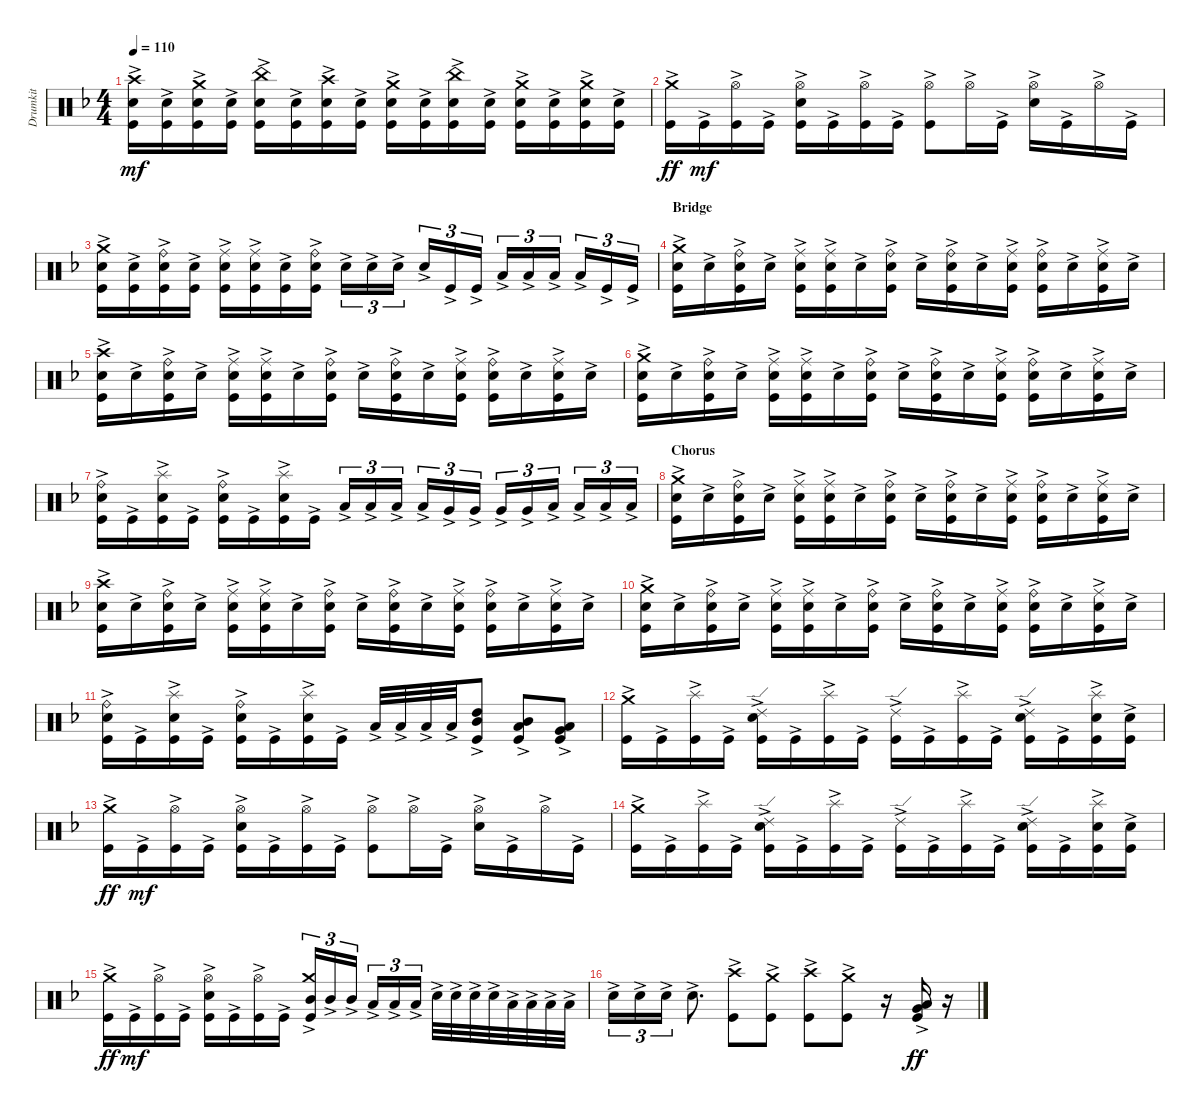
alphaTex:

\track ("Drumkit" "Drumkit") {instrument percussion}
\staff {score}
\articulation defaults
\ts (4 4)
\tempo 110
\clef neutral
\ks dminor
("Crash high (hit)"{ac} "Snare (hit) 2"{ac} "Kick (hit)"{ac}).16{dy mf} ("Snare (hit) 2"{ac} "Kick (hit)"{ac}).16 ("Crash medium (hit)"{ac} "Snare (hit) 2"{ac} "Kick (hit)"{ac}).16 ("Snare (hit) 2"{ac} "Kick (hit)"{ac}).16 ("China (hit)"{ac} "Snare (hit) 2"{ac} "Kick (hit)"{ac}).16 ("Snare (hit) 2"{ac} "Kick (hit)"{ac}).16 ("Crash high (hit)"{ac} "Snare (hit) 2"{ac} "Kick (hit)"{ac}).16 ("Snare (hit) 2"{ac} "Kick (hit)"{ac}).16 ("Crash medium (hit)"{ac} "Snare (hit) 2"{ac} "Kick (hit)"{ac}).16 ("Snare (hit) 2"{ac} "Kick (hit)"{ac}).16 ("China (hit)"{ac} "Snare (hit) 2"{ac} "Kick (hit)"{ac}).16 ("Snare (hit) 2"{ac} "Kick (hit)"{ac}).16 ("Crash medium (hit)"{ac} "Snare (hit) 2"{ac} "Kick (hit)"{ac}).16 ("Snare (hit) 2"{ac} "Kick (hit)"{ac}).16 ("Crash medium (hit)"{ac} "Snare (hit) 2"{ac} "Kick (hit)"{ac}).16 ("Snare (hit) 2"{ac} "Kick (hit)"{ac}).16 |
("Crash medium (hit)"{ac} "Kick (hit)"{ac}).16{dy ff} "Kick (hit)"{ac}.16{dy mf} ("Hi-Hat (open)"{ac} "Kick (hit)"{ac}).16 "Kick (hit)"{ac}.16 ("Hi-Hat (open)"{ac} "Snare (hit) 2"{ac} "Kick (hit)"{ac}).16 "Kick (hit)"{ac}.16 ("Hi-Hat (open)"{ac} "Kick (hit)"{ac}).16 "Kick (hit)"{ac}.16 ("Hi-Hat (open)"{ac} "Kick (hit)"{ac}).8 "Hi-Hat (open)"{ac}.16 "Kick (hit)"{ac}.16 ("Hi-Hat (open)"{ac} "Snare (hit) 2"{ac}).16 "Kick (hit)"{ac}.16 "Hi-Hat (open)"{ac}.16 "Kick (hit)"{ac}.16 |
("Crash medium (hit)"{ac} "Snare (hit) 2"{ac} "Kick (hit)"{ac}).16 ("Snare (hit) 2"{ac} "Kick (hit)"{ac}).16 ("Ride (bell)"{ac} "Snare (hit) 2"{ac} "Kick (hit)"{ac}).16 ("Snare (hit) 2"{ac} "Kick (hit)"{ac}).16 ("Ride (middle)"{ac} "Snare (hit) 2"{ac} "Kick (hit)"{ac}).16 ("Ride (middle)"{ac} "Snare (hit) 2"{ac} "Kick (hit)"{ac}).16 ("Snare (hit) 2"{ac} "Kick (hit)"{ac}).16 ("Ride (bell)"{ac} "Snare (hit) 2"{ac} "Kick (hit)"{ac}).16 "Snare (hit) 2"{ac}.16{tu (3 2)} "Snare (hit) 2"{ac}.16{tu (3 2)} "Snare (hit) 2"{ac}.16{tu (3 2)} "Snare (hit) 2"{ac}.16{tu (3 2)} "Kick (hit)"{ac}.16{tu (3 2)} "Kick (hit)"{ac}.16{tu (3 2)} "Low Floor Tom (hit)"{ac}.16{tu (3 2)} "Low Floor Tom (hit)"{ac}.16{tu (3 2)} "Low Floor Tom (hit)"{ac}.16{tu (3 2)} "Low Floor Tom (hit)"{ac}.16{tu (3 2)} "Kick (hit)"{ac}.16{tu (3 2)} "Kick (hit)"{ac}.16{tu (3 2)} |
\section ("" "Bridge")
("Crash medium (hit)"{ac} "Snare (hit) 2"{ac} "Kick (hit)"{ac}).16 "Snare (hit) 2"{ac}.16 ("Ride (bell)"{ac} "Snare (hit) 2"{ac} "Kick (hit)"{ac}).16 "Snare (hit) 2"{ac}.16 ("Ride (middle)"{ac} "Snare (hit) 2"{ac} "Kick (hit)"{ac}).16 ("Ride (middle)"{ac} "Snare (hit) 2"{ac} "Kick (hit)"{ac}).16 "Snare (hit) 2"{ac}.16 ("Ride (bell)"{ac} "Snare (hit) 2"{ac} "Kick (hit)"{ac}).16 "Snare (hit) 2"{ac}.16 ("Ride (bell)"{ac} "Snare (hit) 2"{ac} "Kick (hit)"{ac}).16 "Snare (hit) 2"{ac}.16 ("Ride (middle)"{ac} "Snare (hit) 2"{ac} "Kick (hit)"{ac}).16 ("Ride (bell)"{ac} "Snare (hit) 2"{ac} "Kick (hit)"{ac}).16 "Snare (hit) 2"{ac}.16 ("Ride (middle)"{ac} "Snare (hit) 2"{ac} "Kick (hit)"{ac}).16 "Snare (hit) 2"{ac}.16 |
("Crash high (hit)"{ac} "Snare (hit) 2"{ac} "Kick (hit)"{ac}).16 "Snare (hit) 2"{ac}.16 ("Ride (bell)"{ac} "Snare (hit) 2"{ac} "Kick (hit)"{ac}).16 "Snare (hit) 2"{ac}.16 ("Ride (middle)"{ac} "Snare (hit) 2"{ac} "Kick (hit)"{ac}).16 ("Ride (middle)"{ac} "Snare (hit) 2"{ac} "Kick (hit)"{ac}).16 "Snare (hit) 2"{ac}.16 ("Ride (bell)"{ac} "Snare (hit) 2"{ac} "Kick (hit)"{ac}).16 "Snare (hit) 2"{ac}.16 ("Ride (bell)"{ac} "Snare (hit) 2"{ac} "Kick (hit)"{ac}).16 "Snare (hit) 2"{ac}.16 ("Ride (middle)"{ac} "Snare (hit) 2"{ac} "Kick (hit)"{ac}).16 ("Ride (bell)"{ac} "Snare (hit) 2"{ac} "Kick (hit)"{ac}).16 "Snare (hit) 2"{ac}.16 ("Ride (middle)"{ac} "Snare (hit) 2"{ac} "Kick (hit)"{ac}).16 "Snare (hit) 2"{ac}.16 |
("Crash medium (hit)"{ac} "Snare (hit) 2"{ac} "Kick (hit)"{ac}).16 "Snare (hit) 2"{ac}.16 ("Ride (bell)"{ac} "Snare (hit) 2"{ac} "Kick (hit)"{ac}).16 "Snare (hit) 2"{ac}.16 ("Ride (middle)"{ac} "Snare (hit) 2"{ac} "Kick (hit)"{ac}).16 ("Ride (middle)"{ac} "Snare (hit) 2"{ac} "Kick (hit)"{ac}).16 "Snare (hit) 2"{ac}.16 ("Ride (bell)"{ac} "Snare (hit) 2"{ac} "Kick (hit)"{ac}).16 "Snare (hit) 2"{ac}.16 ("Ride (bell)"{ac} "Snare (hit) 2"{ac} "Kick (hit)"{ac}).16 "Snare (hit) 2"{ac}.16 ("Ride (middle)"{ac} "Snare (hit) 2"{ac} "Kick (hit)"{ac}).16 ("Ride (bell)"{ac} "Snare (hit) 2"{ac} "Kick (hit)"{ac}).16 "Snare (hit) 2"{ac}.16 ("Ride (middle)"{ac} "Snare (hit) 2"{ac} "Kick (hit)"{ac}).16 "Snare (hit) 2"{ac}.16 |
("Kick (hit)"{ac} "Snare (hit) 2"{ac} "Ride (bell)"{ac}).16 "Kick (hit)"{ac}.16 ("Kick (hit)"{ac} "Snare (hit) 2"{ac} "Splash (hit)"{ac}).16 "Kick (hit)"{ac}.16 ("Kick (hit)"{ac} "Snare (hit) 2"{ac} "Ride (bell)"{ac}).16 "Kick (hit)"{ac}.16 ("Kick (hit)"{ac} "Snare (hit) 2"{ac} "Splash (hit)"{ac}).16 "Kick (hit)"{ac}.16 "Low Tom (hit)"{ac}.16{tu (3 2)} "Low Tom (hit)"{ac}.16{tu (3 2)} "Low Tom (hit)"{ac}.16{tu (3 2)} "Low Tom (hit)"{ac}.16{tu (3 2)} "Very Low Tom (hit)"{ac}.16{tu (3 2)} "Very Low Tom (hit)"{ac}.16{tu (3 2)} "Very Low Tom (hit)"{ac}.16{tu (3 2)} "Very Low Tom (hit)"{ac}.16{tu (3 2)} "Low Floor Tom (hit)"{ac}.16{tu (3 2)} "Low Floor Tom (hit)"{ac}.16{tu (3 2)} "Low Floor Tom (hit)"{ac}.16{tu (3 2)} "Low Floor Tom (hit)"{ac}.16{tu (3 2)} |
\section ("" "Chorus")
("Crash medium (hit)"{ac} "Snare (hit) 2"{ac} "Kick (hit)"{ac}).16 "Snare (hit) 2"{ac}.16 ("Ride (bell)"{ac} "Snare (hit) 2"{ac} "Kick (hit)"{ac}).16 "Snare (hit) 2"{ac}.16 ("Ride (middle)"{ac} "Snare (hit) 2"{ac} "Kick (hit)"{ac}).16 ("Ride (middle)"{ac} "Snare (hit) 2"{ac} "Kick (hit)"{ac}).16 "Snare (hit) 2"{ac}.16 ("Ride (bell)"{ac} "Snare (hit) 2"{ac} "Kick (hit)"{ac}).16 "Snare (hit) 2"{ac}.16 ("Ride (bell)"{ac} "Snare (hit) 2"{ac} "Kick (hit)"{ac}).16 "Snare (hit) 2"{ac}.16 ("Ride (middle)"{ac} "Snare (hit) 2"{ac} "Kick (hit)"{ac}).16 ("Ride (bell)"{ac} "Snare (hit) 2"{ac} "Kick (hit)"{ac}).16 "Snare (hit) 2"{ac}.16 ("Ride (middle)"{ac} "Snare (hit) 2"{ac} "Kick (hit)"{ac}).16 "Snare (hit) 2"{ac}.16 |
("Crash high (hit)"{ac} "Snare (hit) 2"{ac} "Kick (hit)"{ac}).16 "Snare (hit) 2"{ac}.16 ("Ride (bell)"{ac} "Snare (hit) 2"{ac} "Kick (hit)"{ac}).16 "Snare (hit) 2"{ac}.16 ("Ride (middle)"{ac} "Snare (hit) 2"{ac} "Kick (hit)"{ac}).16 ("Ride (middle)"{ac} "Snare (hit) 2"{ac} "Kick (hit)"{ac}).16 "Snare (hit) 2"{ac}.16 ("Ride (bell)"{ac} "Snare (hit) 2"{ac} "Kick (hit)"{ac}).16 "Snare (hit) 2"{ac}.16 ("Ride (bell)"{ac} "Snare (hit) 2"{ac} "Kick (hit)"{ac}).16 "Snare (hit) 2"{ac}.16 ("Ride (middle)"{ac} "Snare (hit) 2"{ac} "Kick (hit)"{ac}).16 ("Ride (bell)"{ac} "Snare (hit) 2"{ac} "Kick (hit)"{ac}).16 "Snare (hit) 2"{ac}.16 ("Ride (middle)"{ac} "Snare (hit) 2"{ac} "Kick (hit)"{ac}).16 "Snare (hit) 2"{ac}.16 |
("Crash medium (hit)"{ac} "Snare (hit) 2"{ac} "Kick (hit)"{ac}).16 "Snare (hit) 2"{ac}.16 ("Ride (bell)"{ac} "Snare (hit) 2"{ac} "Kick (hit)"{ac}).16 "Snare (hit) 2"{ac}.16 ("Ride (middle)"{ac} "Snare (hit) 2"{ac} "Kick (hit)"{ac}).16 ("Ride (middle)"{ac} "Snare (hit) 2"{ac} "Kick (hit)"{ac}).16 "Snare (hit) 2"{ac}.16 ("Ride (bell)"{ac} "Snare (hit) 2"{ac} "Kick (hit)"{ac}).16 "Snare (hit) 2"{ac}.16 ("Ride (bell)"{ac} "Snare (hit) 2"{ac} "Kick (hit)"{ac}).16 "Snare (hit) 2"{ac}.16 ("Ride (middle)"{ac} "Snare (hit) 2"{ac} "Kick (hit)"{ac}).16 ("Ride (bell)"{ac} "Snare (hit) 2"{ac} "Kick (hit)"{ac}).16 "Snare (hit) 2"{ac}.16 ("Ride (middle)"{ac} "Snare (hit) 2"{ac} "Kick (hit)"{ac}).16 "Snare (hit) 2"{ac}.16 |
("Kick (hit)"{ac} "Snare (hit) 2"{ac} "Ride (bell)"{ac}).16 "Kick (hit)"{ac}.16 ("Kick (hit)"{ac} "Snare (hit) 2"{ac} "Splash (hit)"{ac}).16 "Kick (hit)"{ac}.16 ("Kick (hit)"{ac} "Snare (hit) 2"{ac} "Ride (bell)"{ac}).16 "Kick (hit)"{ac}.16 ("Kick (hit)"{ac} "Snare (hit) 2"{ac} "Splash (hit)"{ac}).16 "Kick (hit)"{ac}.16 "Low Tom (hit)"{ac}.32 "Low Tom (hit)"{ac}.32 "Low Tom (hit)"{ac}.32 "Low Tom (hit)"{ac}.32 ("Mid Tom (hit)"{ac} "High Tom (hit)"{ac} "Kick (hit)"{ac}).8 ("Low Tom (hit)"{ac} "Mid Tom (hit)"{ac} "Kick (hit)"{ac}).8 ("Very Low Tom (hit)"{ac} "Low Tom (hit)"{ac} "Kick (hit)"{ac}).8 |
("Crash medium (hit)"{ac} "Kick (hit)"{ac}).16 "Kick (hit)"{ac}.16 ("Splash (hit)"{ac} "Kick (hit)"{ac}).16 "Kick (hit)"{ac}.16 ("Ride (edge) 2"{ac} "Snare (hit) 2"{ac} "Kick (hit)"{ac}).16 "Kick (hit)"{ac}.16 ("Splash (hit)"{ac} "Kick (hit)"{ac}).16 "Kick (hit)"{ac}.16 ("Ride (edge) 2"{ac} "Kick (hit)"{ac}).16 "Kick (hit)"{ac}.16 ("Splash (hit)"{ac} "Kick (hit)"{ac}).16 "Kick (hit)"{ac}.16 ("Ride (edge) 2"{ac} "Snare (hit) 2"{ac} "Kick (hit)"{ac}).16 "Kick (hit)"{ac}.16 ("Splash (hit)"{ac} "Snare (hit) 2"{ac} "Kick (hit)"{ac}).16 ("Snare (hit) 2"{ac} "Kick (hit)"{ac}).16 |
("Crash medium (hit)"{ac} "Kick (hit)"{ac}).16{dy ff} "Kick (hit)"{ac}.16{dy mf} ("Hi-Hat (open)"{ac} "Kick (hit)"{ac}).16 "Kick (hit)"{ac}.16 ("Hi-Hat (open)"{ac} "Snare (hit) 2"{ac} "Kick (hit)"{ac}).16 "Kick (hit)"{ac}.16 ("Hi-Hat (open)"{ac} "Kick (hit)"{ac}).16 "Kick (hit)"{ac}.16 ("Hi-Hat (open)"{ac} "Kick (hit)"{ac}).8 "Hi-Hat (open)"{ac}.16 "Kick (hit)"{ac}.16 ("Hi-Hat (open)"{ac} "Snare (hit) 2"{ac}).16 "Kick (hit)"{ac}.16 "Hi-Hat (open)"{ac}.16 "Kick (hit)"{ac}.16 |
("Crash medium (hit)"{ac} "Kick (hit)"{ac}).16 "Kick (hit)"{ac}.16 ("Splash (hit)"{ac} "Kick (hit)"{ac}).16 "Kick (hit)"{ac}.16 ("Ride (edge) 2"{ac} "Snare (hit) 2"{ac} "Kick (hit)"{ac}).16 "Kick (hit)"{ac}.16 ("Splash (hit)"{ac} "Kick (hit)"{ac}).16 "Kick (hit)"{ac}.16 ("Ride (edge) 2"{ac} "Kick (hit)"{ac}).16 "Kick (hit)"{ac}.16 ("Splash (hit)"{ac} "Kick (hit)"{ac}).16 "Kick (hit)"{ac}.16 ("Ride (edge) 2"{ac} "Snare (hit) 2"{ac} "Kick (hit)"{ac}).16 "Kick (hit)"{ac}.16 ("Splash (hit)"{ac} "Snare (hit) 2"{ac} "Kick (hit)"{ac}).16 ("Snare (hit) 2"{ac} "Kick (hit)"{ac}).16 |
("Crash medium (hit)"{ac} "Kick (hit)"{ac}).16{dy ff} "Kick (hit)"{ac}.16{dy mf} ("Hi-Hat (open)"{ac} "Kick (hit)"{ac}).16 "Kick (hit)"{ac}.16 ("Hi-Hat (open)"{ac} "Snare (hit) 2"{ac} "Kick (hit)"{ac}).16 "Kick (hit)"{ac}.16 ("Hi-Hat (open)"{ac} "Kick (hit)"{ac}).16 "Kick (hit)"{ac}.16 ("Crash medium (hit)"{ac} "Mid Tom (hit)"{ac} "Kick (hit)"{ac}).16{tu (3 2)} "Mid Tom (hit)"{ac}.16{tu (3 2)} "Mid Tom (hit)"{ac}.16{tu (3 2)} "Low Tom (hit)"{ac}.16{tu (3 2)} "Low Tom (hit)"{ac}.16{tu (3 2)} "Low Tom (hit)"{ac}.16{tu (3 2)} "Snare (hit) 2"{ac}.32 "Snare (hit) 2"{ac}.32 "Snare (hit) 2"{ac}.32 "Snare (hit) 2"{ac}.32 "Low Tom (hit)"{ac}.32 "Low Tom (hit)"{ac}.32 "Low Tom (hit)"{ac}.32 "Low Tom (hit)"{ac}.32 |
"Snare (hit) 2"{ac}.16{tu (3 2)} "Snare (hit) 2"{ac}.16{tu (3 2)} "Snare (hit) 2"{ac}.16{tu (3 2)} "Snare (hit) 2"{ac}.8{d} ("Crash high (hit)"{ac} "Kick (hit)"{ac}).8 ("Crash medium (hit)"{ac} "Kick (hit)"{ac}).8 ("Crash high (hit)"{ac} "Kick (hit)"{ac}).8 ("Crash medium (hit)"{ac} "Kick (hit)"{ac}).8 r.16 ("Low Floor Tom (hit)"{ac} "Very Low Tom (hit)"{ac} "Kick (hit)"{ac}).16{dy ff} r.16
